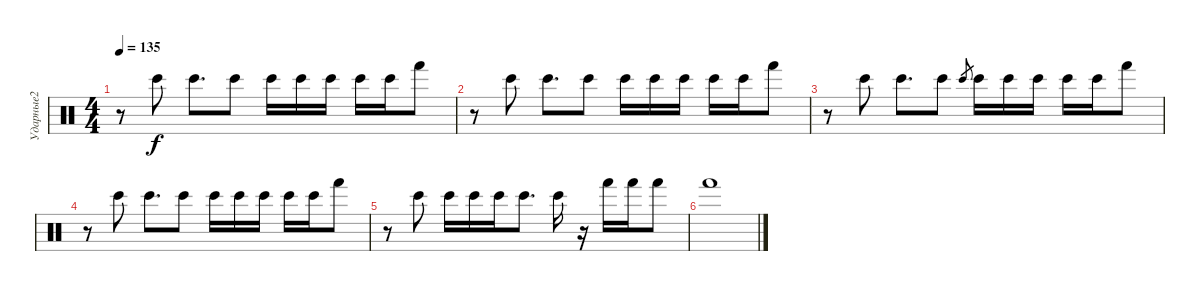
\track ("Ударные2" "Ударные2") {instrument percussion}
\staff {score}
\articulation defaults
\ts (4 4)
\tempo 135
\clef neutral
\ks c
r.8{dy f} "Bongo High (hit)".8 "Bongo High (hit)".8{d} "Bongo High (hit)".8 "Bongo High (hit)".16 "Bongo High (hit)".16 "Bongo High (hit)".16 "Bongo High (hit)".16 "Bongo High (hit)".16 "Hand (hit)".8 |
r.8 "Bongo High (hit)".8 "Bongo High (hit)".8{d} "Bongo High (hit)".8 "Bongo High (hit)".16 "Bongo High (hit)".16 "Bongo High (hit)".16 "Bongo High (hit)".16 "Bongo High (hit)".16 "Hand (hit)".8 |
r.8 "Bongo High (hit)".8 "Bongo High (hit)".8{d} "Bongo High (hit)".8 "Bongo High (hit)".8{gr} "Bongo High (hit)".16 "Bongo High (hit)".16 "Bongo High (hit)".16 "Bongo High (hit)".16 "Bongo High (hit)".16 "Hand (hit)".8 |
r.8 "Bongo High (hit)".8 "Bongo High (hit)".8{d} "Bongo High (hit)".8 "Bongo High (hit)".16 "Bongo High (hit)".16 "Bongo High (hit)".16 "Bongo High (hit)".16 "Bongo High (hit)".16 "Hand (hit)".8 |
r.8 "Bongo High (hit)".8 "Bongo High (hit)".16 "Bongo High (hit)".16 "Bongo High (hit)".16 "Bongo High (hit)".8{d} "Bongo High (hit)".16 r.16 "Hand (hit)".16 "Hand (hit)".16 "Hand (hit)".8 |
"Hand (hit)".1
